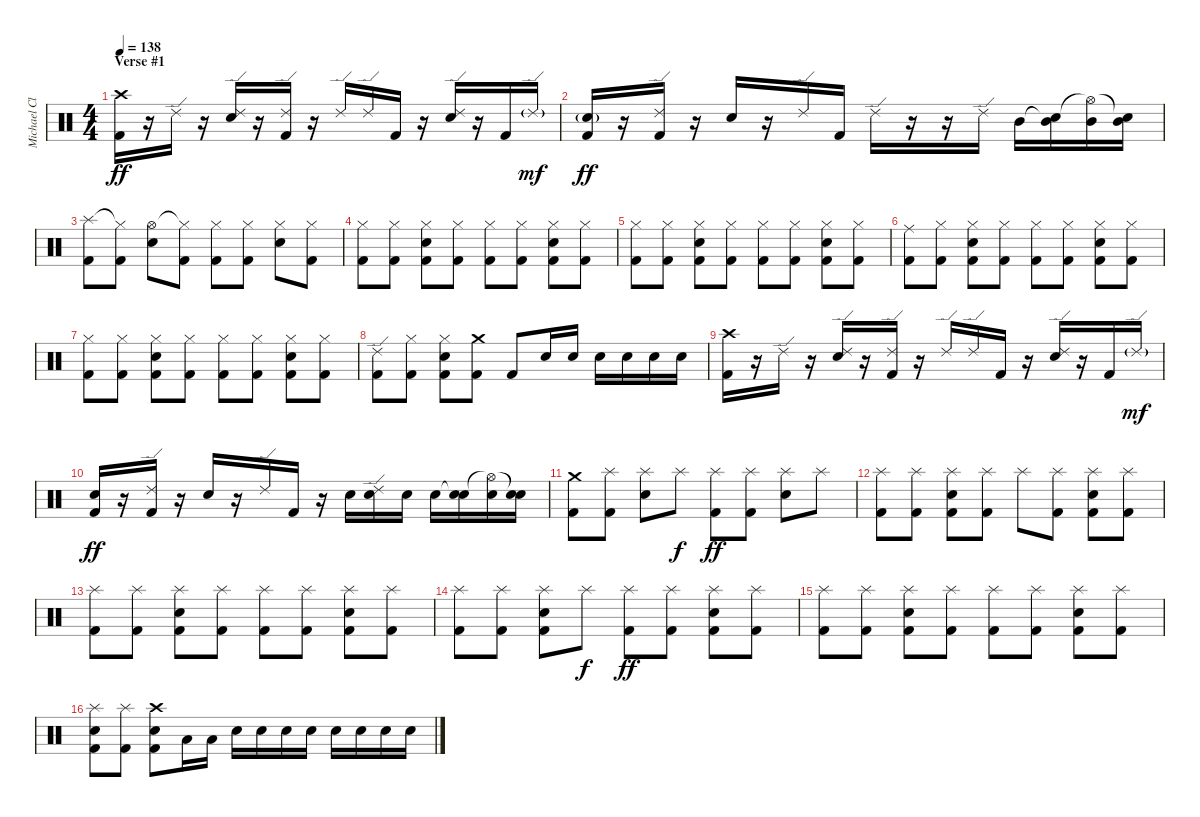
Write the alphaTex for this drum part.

\track ("Michael Clarke" "Michael Cl") {instrument percussion}
\staff {score}
\articulation defaults
\ts (4 4)
\section ("" "Verse #1")
\tempo 138
\clef neutral
\ks c
("Crash high (hit)" "Kick (hit) 2").16{dy ff} r.16 "Ride (edge) 2".16 r.16 ("Ride (edge) 2" "Snare (hit) 2").16 r.16 ("Ride (edge) 2" "Kick (hit) 2").16 r.16 "Ride (edge) 2".16 "Ride (edge) 2".16 "Kick (hit) 2".16 r.16 ("Ride (edge) 2" "Snare (hit) 2").16 r.16 "Kick (hit) 2".16 "Ride (edge) 2"{g}.16{dy mf} |
("Snare (hit) 2"{g} "Kick (hit) 2").16{dy ff} r.16 ("Ride (edge) 2" "Kick (hit) 2").16 r.16 "Snare (hit) 2".16 r.16 "Ride (edge) 2".16 "Kick (hit) 2".16 "Ride (edge) 2".16 r.16 r.16 "Ride (edge) 2".16 "Mid Tom (hit)".16 ("Snare (hit)"{t} "Mid Tom (hit)").16 ("Hi-Hat (open)"{t} "Mid Tom (hit)").16 ("Snare (hit)"{t} "Mid Tom (hit)").16 |
("Splash (hit)" "Kick (hit) 2").8 ("Hi-Hat (closed)"{t} "Kick (hit) 2").8 ("Hi-Hat (open)" "Snare (hit) 2").8 ("Hi-Hat (closed)"{t} "Kick (hit) 2").8 ("Hi-Hat (closed)" "Kick (hit) 2").8 ("Hi-Hat (closed)" "Kick (hit) 2").8 ("Hi-Hat (closed)" "Snare (hit) 2").8 ("Hi-Hat (closed)" "Kick (hit) 2").8 |
("Hi-Hat (closed)" "Kick (hit) 2").8 ("Hi-Hat (closed)" "Kick (hit) 2").8 ("Hi-Hat (closed)" "Snare (hit) 2" "Kick (hit) 2").8 ("Hi-Hat (closed)" "Kick (hit) 2").8 ("Hi-Hat (closed)" "Kick (hit) 2").8 ("Hi-Hat (closed)" "Kick (hit) 2").8 ("Hi-Hat (closed)" "Snare (hit) 2" "Kick (hit) 2").8 ("Hi-Hat (closed)" "Kick (hit) 2").8 |
("Hi-Hat (closed)" "Kick (hit) 2").8 ("Hi-Hat (closed)" "Kick (hit) 2").8 ("Hi-Hat (closed)" "Snare (hit) 2" "Kick (hit) 2").8 ("Hi-Hat (closed)" "Kick (hit) 2").8 ("Hi-Hat (closed)" "Kick (hit) 2").8 ("Hi-Hat (closed)" "Kick (hit) 2").8 ("Hi-Hat (closed)" "Snare (hit) 2" "Kick (hit) 2").8 ("Hi-Hat (closed)" "Kick (hit) 2").8 |
("Ride (middle)" "Kick (hit) 2").8 ("Hi-Hat (closed)" "Kick (hit) 2").8 ("Hi-Hat (closed)" "Snare (hit) 2" "Kick (hit) 2").8 ("Hi-Hat (closed)" "Kick (hit) 2").8 ("Hi-Hat (closed)" "Kick (hit) 2").8 ("Hi-Hat (closed)" "Kick (hit) 2").8 ("Hi-Hat (closed)" "Snare (hit) 2" "Kick (hit) 2").8 ("Hi-Hat (closed)" "Kick (hit) 2").8 |
("Hi-Hat (closed)" "Kick (hit) 2").8 ("Hi-Hat (closed)" "Kick (hit) 2").8 ("Hi-Hat (closed)" "Snare (hit) 2" "Kick (hit) 2").8 ("Hi-Hat (closed)" "Kick (hit) 2").8 ("Hi-Hat (closed)" "Kick (hit) 2").8 ("Hi-Hat (closed)" "Kick (hit) 2").8 ("Hi-Hat (closed)" "Snare (hit) 2" "Kick (hit) 2").8 ("Hi-Hat (closed)" "Kick (hit) 2").8 |
("Ride (edge) 2" "Kick (hit) 2").8 ("Hi-Hat (closed)" "Kick (hit) 2").8 ("Hi-Hat (closed)" "Snare (hit) 2" "Kick (hit) 2").8 ("Crash medium (hit)" "Kick (hit) 2").8 "Kick (hit) 2".8 "Snare (hit) 2".16 "Snare (hit) 2".16 "Snare (hit) 2".16 "Snare (hit) 2".16 "Snare (hit) 2".16 "Snare (hit) 2".16 |
("Crash high (hit)" "Kick (hit) 2").16 r.16 "Ride (edge) 2".16 r.16 ("Ride (edge) 2" "Snare (hit) 2").16 r.16 ("Ride (edge) 2" "Kick (hit) 2").16 r.16 "Ride (edge) 2".16 "Ride (edge) 2".16 "Kick (hit) 2".16 r.16 ("Ride (edge) 2" "Snare (hit) 2").16 r.16 "Kick (hit) 2".16 "Ride (edge) 2"{g}.16{dy mf} |
("Snare (hit) 2" "Kick (hit) 2").16{dy ff} r.16 ("Ride (edge) 2" "Kick (hit) 2").16 r.16 "Snare (hit) 2".16 r.16 "Ride (edge) 2".16 "Kick (hit) 2".16 r.16 "Snare (hit) 2".16 ("Ride (edge) 2" "Snare (hit) 2").16 "Snare (hit) 2".16 "Snare (hit) 2".16 ("Snare (hit)"{t} "Snare (hit) 2").16 ("Hi-Hat (open)"{t} "Snare (hit) 2").16 ("Snare (hit)"{t} "Snare (hit) 2").16 |
("Crash medium (hit)" "Kick (hit) 2").8 ("Splash (hit)" "Kick (hit) 2").8 ("Splash (hit)" "Snare (hit) 2").8 "Splash (hit)".8{dy f} ("Splash (hit)" "Kick (hit) 2").8{dy ff} ("Splash (hit)" "Kick (hit) 2").8 ("Splash (hit)" "Snare (hit) 2").8 "Splash (hit)".8 |
("Splash (hit)" "Kick (hit) 2").8 ("Splash (hit)" "Kick (hit) 2").8 ("Splash (hit)" "Snare (hit) 2" "Kick (hit) 2").8 ("Splash (hit)" "Kick (hit) 2").8 "Splash (hit)".8 ("Splash (hit)" "Kick (hit) 2").8 ("Splash (hit)" "Snare (hit) 2" "Kick (hit) 2").8 ("Splash (hit)" "Kick (hit) 2").8 |
("Splash (hit)" "Kick (hit) 2").8 ("Splash (hit)" "Kick (hit) 2").8 ("Splash (hit)" "Snare (hit) 2" "Kick (hit) 2").8 ("Splash (hit)" "Kick (hit) 2").8 ("Splash (hit)" "Kick (hit) 2").8 ("Splash (hit)" "Kick (hit) 2").8 ("Splash (hit)" "Snare (hit) 2" "Kick (hit) 2").8 ("Splash (hit)" "Kick (hit) 2").8 |
("Splash (hit)" "Kick (hit) 2").8 ("Splash (hit)" "Kick (hit) 2").8 ("Splash (hit)" "Snare (hit) 2" "Kick (hit) 2").8 "Splash (hit)".8{dy f} ("Splash (hit)" "Kick (hit) 2").8{dy ff} ("Splash (hit)" "Kick (hit) 2").8 ("Splash (hit)" "Snare (hit) 2" "Kick (hit) 2").8 ("Splash (hit)" "Kick (hit) 2").8 |
("Splash (hit)" "Kick (hit) 2").8 ("Splash (hit)" "Kick (hit) 2").8 ("Splash (hit)" "Snare (hit) 2" "Kick (hit) 2").8 ("Splash (hit)" "Kick (hit) 2").8 ("Splash (hit)" "Kick (hit) 2").8 ("Splash (hit)" "Kick (hit) 2").8 ("Splash (hit)" "Snare (hit) 2" "Kick (hit) 2").8 ("Splash (hit)" "Kick (hit) 2").8 |
("Splash (hit)" "Snare (hit) 2" "Kick (hit) 2").8 ("Splash (hit)" "Kick (hit) 2").8 ("Crash high (hit)" "Snare (hit) 2" "Kick (hit) 2").8 "Low Tom (hit)".16 "Low Tom (hit)".16 "Snare (hit) 2".16 "Snare (hit) 2".16 "Snare (hit) 2".16 "Snare (hit) 2".16 "Snare (hit) 2".16 "Snare (hit) 2".16 "Snare (hit) 2".16 "Snare (hit) 2".16
